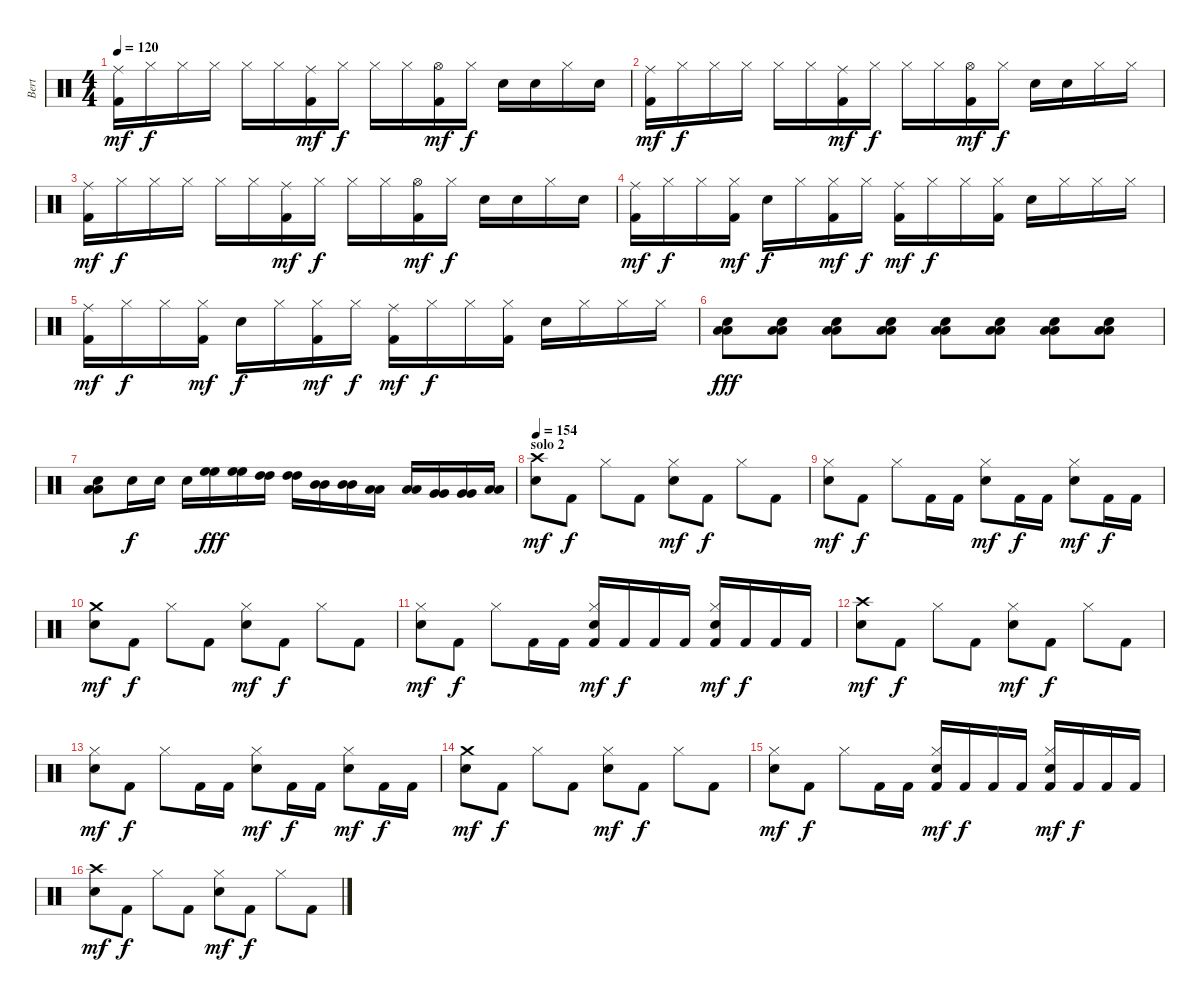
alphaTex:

\track ("Bert" "Bert") {instrument percussion}
\staff {score}
\articulation defaults
\ts (4 4)
\tempo 120
\clef neutral
\ks c
("Ride (middle)" "Kick (hit) 2").16{dy mf} "Hi-Hat (closed)".16{dy f} "Hi-Hat (closed)".16 "Hi-Hat (closed)".16 "Hi-Hat (closed)".16 "Hi-Hat (closed)".16 ("Ride (middle)" "Kick (hit) 2").16{dy mf} "Hi-Hat (closed)".16{dy f} "Hi-Hat (closed)".16 "Hi-Hat (closed)".16 ("Hi-Hat (open)" "Kick (hit) 2").16{dy mf} "Hi-Hat (closed)".16{dy f} "Snare (hit) 2".16 "Snare (hit) 2".16 "Hi-Hat (closed)".16 "Snare (hit) 2".16 |
("Ride (middle)" "Kick (hit) 2").16{dy mf} "Hi-Hat (closed)".16{dy f} "Hi-Hat (closed)".16 "Hi-Hat (closed)".16 "Hi-Hat (closed)".16 "Hi-Hat (closed)".16 ("Ride (middle)" "Kick (hit) 2").16{dy mf} "Hi-Hat (closed)".16{dy f} "Hi-Hat (closed)".16 "Hi-Hat (closed)".16 ("Hi-Hat (open)" "Kick (hit) 2").16{dy mf} "Hi-Hat (closed)".16{dy f} "Snare (hit) 2".16 "Snare (hit) 2".16 "Hi-Hat (closed)".16 "Hi-Hat (closed)".16 |
("Ride (middle)" "Kick (hit) 2").16{dy mf} "Hi-Hat (closed)".16{dy f} "Hi-Hat (closed)".16 "Hi-Hat (closed)".16 "Hi-Hat (closed)".16 "Hi-Hat (closed)".16 ("Ride (middle)" "Kick (hit) 2").16{dy mf} "Hi-Hat (closed)".16{dy f} "Hi-Hat (closed)".16 "Hi-Hat (closed)".16 ("Hi-Hat (open)" "Kick (hit) 2").16{dy mf} "Hi-Hat (closed)".16{dy f} "Snare (hit) 2".16 "Snare (hit) 2".16 "Hi-Hat (closed)".16 "Snare (hit) 2".16 |
("Ride (middle)" "Kick (hit) 2").16{dy mf} "Hi-Hat (closed)".16{dy f} "Hi-Hat (closed)".16 ("Hi-Hat (closed)" "Kick (hit) 2").16{dy mf} "Snare (hit) 2".16{dy f} "Hi-Hat (closed)".16 ("Hi-Hat (closed)" "Kick (hit) 2").16{dy mf} "Hi-Hat (closed)".16{dy f} ("Ride (middle)" "Kick (hit) 2").16{dy mf} "Hi-Hat (closed)".16{dy f} "Hi-Hat (closed)".16 ("Hi-Hat (closed)" "Kick (hit) 2").16 "Snare (hit) 2".16 "Hi-Hat (closed)".16 "Hi-Hat (closed)".16 "Hi-Hat (closed)".16 |
("Ride (middle)" "Kick (hit) 2").16{dy mf} "Hi-Hat (closed)".16{dy f} "Hi-Hat (closed)".16 ("Hi-Hat (closed)" "Kick (hit) 2").16{dy mf} "Snare (hit) 2".16{dy f} "Hi-Hat (closed)".16 ("Hi-Hat (closed)" "Kick (hit) 2").16{dy mf} "Hi-Hat (closed)".16{dy f} ("Ride (middle)" "Kick (hit) 2").16{dy mf} "Hi-Hat (closed)".16{dy f} "Hi-Hat (closed)".16 ("Hi-Hat (closed)" "Kick (hit) 2").16 "Snare (hit) 2".16 "Hi-Hat (closed)".16 "Hi-Hat (closed)".16 "Hi-Hat (closed)".16 |
("Snare (hit) 2" "Low Floor Tom (hit)" "Low Floor Tom (hit)").8{dy fff} ("Snare (hit) 2" "Low Floor Tom (hit)" "Low Floor Tom (hit)").8 ("Snare (hit) 2" "Low Floor Tom (hit)" "Low Floor Tom (hit)").8 ("Snare (hit) 2" "Low Floor Tom (hit)" "Low Floor Tom (hit)").8 ("Snare (hit) 2" "Low Floor Tom (hit)" "Low Floor Tom (hit)").8 ("Snare (hit) 2" "Low Floor Tom (hit)" "Low Floor Tom (hit)").8 ("Snare (hit) 2" "Low Floor Tom (hit)" "Low Floor Tom (hit)").8 ("Snare (hit) 2" "Low Floor Tom (hit)" "Low Floor Tom (hit)").8 |
("Snare (hit) 2" "Low Floor Tom (hit)" "Low Floor Tom (hit)").8 "Snare (hit) 2".16{dy f} "Snare (hit) 2".16 "Snare (hit) 2".16 ("High Floor Tom (hit)" "High Floor Tom (hit)").16{dy fff} ("High Floor Tom (hit)" "High Floor Tom (hit)").16 ("High Tom (hit)" "High Tom (hit)").16 ("High Tom (hit)" "High Tom (hit)").16 ("Mid Tom (hit)" "Mid Tom (hit)").16 ("Mid Tom (hit)" "Mid Tom (hit)").16 ("Low Tom (hit)" "Low Tom (hit)").16 ("Low Tom (hit)" "Low Tom (hit)").16 ("Very Low Tom (hit)" "Very Low Tom (hit)").16 ("Very Low Tom (hit)" "Very Low Tom (hit)").16 ("Low Floor Tom (hit)" "Low Floor Tom (hit)").16 |
\section ("" "solo 2")
\tempo 154
("Crash high (hit)" "Snare (hit) 2").8{dy mf} "Kick (hit) 2".8{dy f} "Hi-Hat (closed)".8 "Kick (hit) 2".8 ("Hi-Hat (closed)" "Snare (hit) 2").8{dy mf} "Kick (hit) 2".8{dy f} "Hi-Hat (closed)".8 "Kick (hit) 2".8 |
("Hi-Hat (closed)" "Snare (hit) 2").8{dy mf} "Kick (hit) 2".8{dy f} "Hi-Hat (closed)".8 "Kick (hit) 2".16 "Kick (hit) 2".16 ("Hi-Hat (closed)" "Snare (hit) 2").8{dy mf} "Kick (hit) 2".16{dy f} "Kick (hit) 2".16 ("Hi-Hat (closed)" "Snare (hit) 2").8{dy mf} "Kick (hit) 2".16{dy f} "Kick (hit) 2".16 |
("Crash medium (hit)" "Snare (hit) 2").8{dy mf} "Kick (hit) 2".8{dy f} "Hi-Hat (closed)".8 "Kick (hit) 2".8 ("Hi-Hat (closed)" "Snare (hit) 2").8{dy mf} "Kick (hit) 2".8{dy f} "Hi-Hat (closed)".8 "Kick (hit) 2".8 |
("Hi-Hat (closed)" "Snare (hit) 2").8{dy mf} "Kick (hit) 2".8{dy f} "Hi-Hat (closed)".8 "Kick (hit) 2".16 "Kick (hit) 2".16 ("Hi-Hat (closed)" "Snare (hit) 2" "Kick (hit) 2").16{dy mf} "Kick (hit) 2".16{dy f} "Kick (hit) 2".16 "Kick (hit) 2".16 ("Hi-Hat (closed)" "Snare (hit) 2" "Kick (hit) 2").16{dy mf} "Kick (hit) 2".16{dy f} "Kick (hit) 2".16 "Kick (hit) 2".16 |
("Crash high (hit)" "Snare (hit) 2").8{dy mf} "Kick (hit) 2".8{dy f} "Hi-Hat (closed)".8 "Kick (hit) 2".8 ("Hi-Hat (closed)" "Snare (hit) 2").8{dy mf} "Kick (hit) 2".8{dy f} "Hi-Hat (closed)".8 "Kick (hit) 2".8 |
("Hi-Hat (closed)" "Snare (hit) 2").8{dy mf} "Kick (hit) 2".8{dy f} "Hi-Hat (closed)".8 "Kick (hit) 2".16 "Kick (hit) 2".16 ("Hi-Hat (closed)" "Snare (hit) 2").8{dy mf} "Kick (hit) 2".16{dy f} "Kick (hit) 2".16 ("Hi-Hat (closed)" "Snare (hit) 2").8{dy mf} "Kick (hit) 2".16{dy f} "Kick (hit) 2".16 |
("Crash medium (hit)" "Snare (hit) 2").8{dy mf} "Kick (hit) 2".8{dy f} "Hi-Hat (closed)".8 "Kick (hit) 2".8 ("Hi-Hat (closed)" "Snare (hit) 2").8{dy mf} "Kick (hit) 2".8{dy f} "Hi-Hat (closed)".8 "Kick (hit) 2".8 |
("Hi-Hat (closed)" "Snare (hit) 2").8{dy mf} "Kick (hit) 2".8{dy f} "Hi-Hat (closed)".8 "Kick (hit) 2".16 "Kick (hit) 2".16 ("Hi-Hat (closed)" "Snare (hit) 2" "Kick (hit) 2").16{dy mf} "Kick (hit) 2".16{dy f} "Kick (hit) 2".16 "Kick (hit) 2".16 ("Hi-Hat (closed)" "Snare (hit) 2" "Kick (hit) 2").16{dy mf} "Kick (hit) 2".16{dy f} "Kick (hit) 2".16 "Kick (hit) 2".16 |
("Crash high (hit)" "Snare (hit) 2").8{dy mf} "Kick (hit) 2".8{dy f} "Hi-Hat (closed)".8 "Kick (hit) 2".8 ("Hi-Hat (closed)" "Snare (hit) 2").8{dy mf} "Kick (hit) 2".8{dy f} "Hi-Hat (closed)".8 "Kick (hit) 2".8
